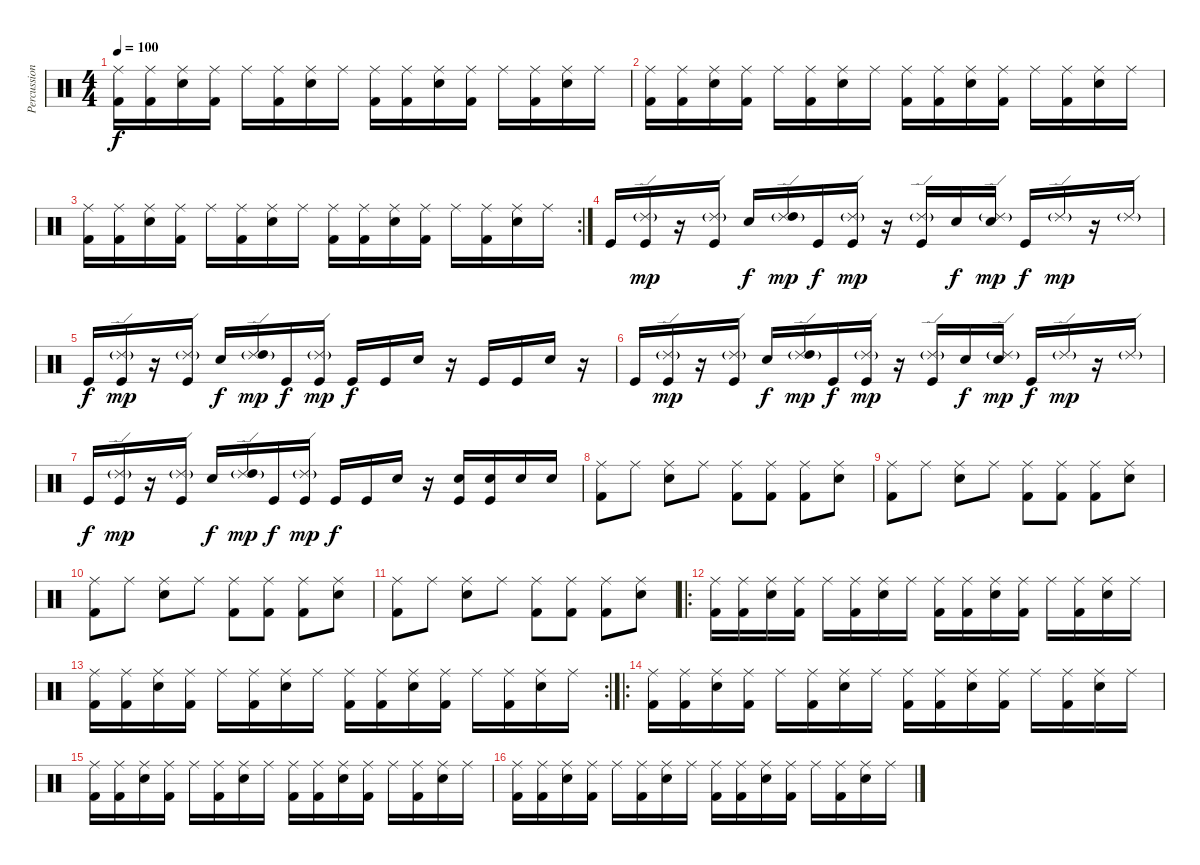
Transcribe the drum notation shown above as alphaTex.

\track ("Percussions" "Percussion") {instrument percussion}
\staff {score}
\articulation defaults
\ts (4 4)
\tempo 100
\clef neutral
\ks c
("Ride (middle)" "Kick (hit) 2").16{dy f} ("Ride (middle)" "Kick (hit) 2").16 ("Ride (middle)" "Snare (hit) 2").16 ("Ride (middle)" "Kick (hit) 2").16 "Ride (middle)".16 ("Ride (middle)" "Kick (hit) 2").16 ("Ride (middle)" "Snare (hit) 2").16 "Ride (middle)".16 ("Ride (middle)" "Kick (hit) 2").16 ("Ride (middle)" "Kick (hit) 2").16 ("Ride (middle)" "Snare (hit) 2").16 ("Ride (middle)" "Kick (hit) 2").16 "Ride (middle)".16 ("Ride (middle)" "Kick (hit) 2").16 ("Ride (middle)" "Snare (hit) 2").16 "Ride (middle)".16 |
("Ride (middle)" "Kick (hit) 2").16 ("Ride (middle)" "Kick (hit) 2").16 ("Ride (middle)" "Snare (hit) 2").16 ("Ride (middle)" "Kick (hit) 2").16 "Ride (middle)".16 ("Ride (middle)" "Kick (hit) 2").16 ("Ride (middle)" "Snare (hit) 2").16 "Ride (middle)".16 ("Ride (middle)" "Kick (hit) 2").16 ("Ride (middle)" "Kick (hit) 2").16 ("Ride (middle)" "Snare (hit) 2").16 ("Ride (middle)" "Kick (hit) 2").16 "Ride (middle)".16 ("Ride (middle)" "Kick (hit) 2").16 ("Ride (middle)" "Snare (hit) 2").16 "Ride (middle)".16 |
\rc 2
("Ride (middle)" "Kick (hit) 2").16 ("Ride (middle)" "Kick (hit) 2").16 ("Ride (middle)" "Snare (hit) 2").16 ("Ride (middle)" "Kick (hit) 2").16 "Ride (middle)".16 ("Ride (middle)" "Kick (hit) 2").16 ("Ride (middle)" "Snare (hit) 2").16 "Ride (middle)".16 ("Ride (middle)" "Kick (hit) 2").16 ("Ride (middle)" "Kick (hit) 2").16 ("Ride (middle)" "Snare (hit) 2").16 ("Ride (middle)" "Kick (hit) 2").16 "Ride (middle)".16 ("Ride (middle)" "Kick (hit) 2").16 ("Ride (middle)" "Snare (hit) 2").16 "Ride (middle)".16 |
"Kick (hit)".16 ("Ride (edge) 2"{g} "Kick (hit)").16{dy mp} r.16 ("Ride (edge) 2"{g} "Kick (hit)").16 "Snare (hit) 2".16{dy f} ("Ride (edge) 2"{g} "High Tom (hit)").16{dy mp} "Kick (hit)".16{dy f} ("Ride (edge) 2"{g} "Kick (hit)").16{dy mp} r.16 ("Ride (edge) 2"{g} "Kick (hit)").16 "Snare (hit) 2".16{dy f} ("Ride (edge) 2"{g} "Snare (hit) 2").16{dy mp} "Kick (hit)".16{dy f} "Ride (edge) 2"{g}.16{dy mp} r.16 "Ride (edge) 2"{g}.16 |
"Kick (hit)".16{dy f} ("Ride (edge) 2"{g} "Kick (hit)").16{dy mp} r.16 ("Ride (edge) 2"{g} "Kick (hit)").16 "Snare (hit) 2".16{dy f} ("Ride (edge) 2"{g} "High Tom (hit)").16{dy mp} "Kick (hit)".16{dy f} ("Ride (edge) 2"{g} "Kick (hit)").16{dy mp} "Kick (hit)".16{dy f} "Kick (hit)".16 "Snare (hit) 2".16 r.16 "Kick (hit)".16 "Kick (hit)".16 "Snare (hit) 2".16 r.16 |
"Kick (hit)".16 ("Ride (edge) 2"{g} "Kick (hit)").16{dy mp} r.16 ("Ride (edge) 2"{g} "Kick (hit)").16 "Snare (hit) 2".16{dy f} ("Ride (edge) 2"{g} "High Tom (hit)").16{dy mp} "Kick (hit)".16{dy f} ("Ride (edge) 2"{g} "Kick (hit)").16{dy mp} r.16 ("Ride (edge) 2"{g} "Kick (hit)").16 "Snare (hit) 2".16{dy f} ("Ride (edge) 2"{g} "Snare (hit) 2").16{dy mp} "Kick (hit)".16{dy f} "Ride (edge) 2"{g}.16{dy mp} r.16 "Ride (edge) 2"{g}.16 |
"Kick (hit)".16{dy f} ("Ride (edge) 2"{g} "Kick (hit)").16{dy mp} r.16 ("Ride (edge) 2"{g} "Kick (hit)").16 "Snare (hit) 2".16{dy f} ("Ride (edge) 2"{g} "High Tom (hit)").16{dy mp} "Kick (hit)".16{dy f} ("Ride (edge) 2"{g} "Kick (hit)").16{dy mp} "Kick (hit)".16{dy f} "Kick (hit)".16 "Snare (hit) 2".16 r.16 ("Electric Snare (hit)" "Kick (hit)").16 ("Electric Snare (hit)" "Kick (hit)").16 "Electric Snare (hit)".16 "Electric Snare (hit)".16 |
("Ride (middle)" "Kick (hit) 2").8 "Ride (middle)".8 ("Ride (middle)" "Snare (hit) 2").8 "Ride (middle)".8 ("Ride (middle)" "Kick (hit) 2").8 ("Ride (middle)" "Kick (hit) 2").8 ("Ride (middle)" "Kick (hit) 2").8 ("Ride (middle)" "Snare (hit) 2").8 |
("Ride (middle)" "Kick (hit) 2").8 "Ride (middle)".8 ("Ride (middle)" "Snare (hit) 2").8 "Ride (middle)".8 ("Ride (middle)" "Kick (hit) 2").8 ("Ride (middle)" "Kick (hit) 2").8 ("Ride (middle)" "Kick (hit) 2").8 ("Ride (middle)" "Snare (hit) 2").8 |
("Ride (middle)" "Kick (hit) 2").8 "Ride (middle)".8 ("Ride (middle)" "Snare (hit) 2").8 "Ride (middle)".8 ("Ride (middle)" "Kick (hit) 2").8 ("Ride (middle)" "Kick (hit) 2").8 ("Ride (middle)" "Kick (hit) 2").8 ("Ride (middle)" "Snare (hit) 2").8 |
("Ride (middle)" "Kick (hit) 2").8 "Ride (middle)".8 ("Ride (middle)" "Snare (hit) 2").8 "Ride (middle)".8 ("Ride (middle)" "Kick (hit) 2").8 ("Ride (middle)" "Kick (hit) 2").8 ("Ride (middle)" "Kick (hit) 2").8 ("Ride (middle)" "Snare (hit) 2").8 |
\ro
("Ride (middle)" "Kick (hit) 2").16 ("Ride (middle)" "Kick (hit) 2").16 ("Ride (middle)" "Snare (hit) 2").16 ("Ride (middle)" "Kick (hit) 2").16 "Ride (middle)".16 ("Ride (middle)" "Kick (hit) 2").16 ("Ride (middle)" "Snare (hit) 2").16 "Ride (middle)".16 ("Ride (middle)" "Kick (hit) 2").16 ("Ride (middle)" "Kick (hit) 2").16 ("Ride (middle)" "Snare (hit) 2").16 ("Ride (middle)" "Kick (hit) 2").16 "Ride (middle)".16 ("Ride (middle)" "Kick (hit) 2").16 ("Ride (middle)" "Snare (hit) 2").16 "Ride (middle)".16 |
\rc 2
("Ride (middle)" "Kick (hit) 2").16 ("Ride (middle)" "Kick (hit) 2").16 ("Ride (middle)" "Snare (hit) 2").16 ("Ride (middle)" "Kick (hit) 2").16 "Ride (middle)".16 ("Ride (middle)" "Kick (hit) 2").16 ("Ride (middle)" "Snare (hit) 2").16 "Ride (middle)".16 ("Ride (middle)" "Kick (hit) 2").16 ("Ride (middle)" "Kick (hit) 2").16 ("Ride (middle)" "Snare (hit) 2").16 ("Ride (middle)" "Kick (hit) 2").16 "Ride (middle)".16 ("Ride (middle)" "Kick (hit) 2").16 ("Ride (middle)" "Snare (hit) 2").16 "Ride (middle)".16 |
\ro
("Ride (middle)" "Kick (hit) 2").16 ("Ride (middle)" "Kick (hit) 2").16 ("Ride (middle)" "Snare (hit) 2").16 ("Ride (middle)" "Kick (hit) 2").16 "Ride (middle)".16 ("Ride (middle)" "Kick (hit) 2").16 ("Ride (middle)" "Snare (hit) 2").16 "Ride (middle)".16 ("Ride (middle)" "Kick (hit) 2").16 ("Ride (middle)" "Kick (hit) 2").16 ("Ride (middle)" "Snare (hit) 2").16 ("Ride (middle)" "Kick (hit) 2").16 "Ride (middle)".16 ("Ride (middle)" "Kick (hit) 2").16 ("Ride (middle)" "Snare (hit) 2").16 "Ride (middle)".16 |
("Ride (middle)" "Kick (hit) 2").16 ("Ride (middle)" "Kick (hit) 2").16 ("Ride (middle)" "Snare (hit) 2").16 ("Ride (middle)" "Kick (hit) 2").16 "Ride (middle)".16 ("Ride (middle)" "Kick (hit) 2").16 ("Ride (middle)" "Snare (hit) 2").16 "Ride (middle)".16 ("Ride (middle)" "Kick (hit) 2").16 ("Ride (middle)" "Kick (hit) 2").16 ("Ride (middle)" "Snare (hit) 2").16 ("Ride (middle)" "Kick (hit) 2").16 "Ride (middle)".16 ("Ride (middle)" "Kick (hit) 2").16 ("Ride (middle)" "Snare (hit) 2").16 "Ride (middle)".16 |
("Ride (middle)" "Kick (hit) 2").16 ("Ride (middle)" "Kick (hit) 2").16 ("Ride (middle)" "Snare (hit) 2").16 ("Ride (middle)" "Kick (hit) 2").16 "Ride (middle)".16 ("Ride (middle)" "Kick (hit) 2").16 ("Ride (middle)" "Snare (hit) 2").16 "Ride (middle)".16 ("Ride (middle)" "Kick (hit) 2").16 ("Ride (middle)" "Kick (hit) 2").16 ("Ride (middle)" "Snare (hit) 2").16 ("Ride (middle)" "Kick (hit) 2").16 "Ride (middle)".16 ("Ride (middle)" "Kick (hit) 2").16 ("Ride (middle)" "Snare (hit) 2").16 "Ride (middle)".16
